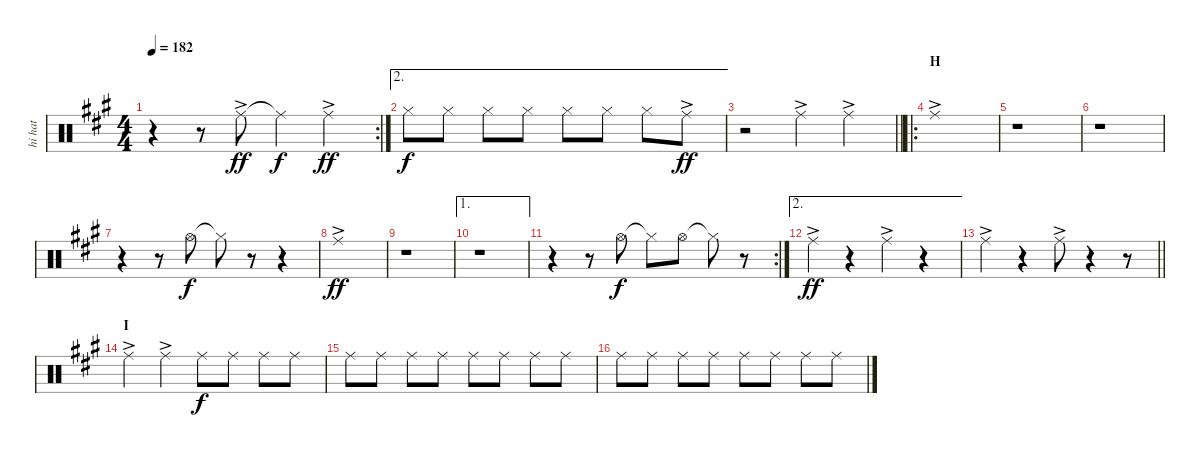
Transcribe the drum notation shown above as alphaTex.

\track ("hi hat" "hi hat") {instrument percussion}
\staff {score}
\articulation defaults
\rc 2
\ts (4 4)
\tempo 182
\clef neutral
\ks f#minor
r.4{dy ff} r.8 "Ride (middle)"{ac}.8 "Ride (middle)"{t}.4{dy f} "Ride (middle)"{ac}.4{dy ff} |
\ae 2 "Hi-Hat (closed)".8{dy f} "Hi-Hat (closed)".8 "Hi-Hat (closed)".8 "Hi-Hat (closed)".8 "Hi-Hat (closed)".8 "Hi-Hat (closed)".8 "Hi-Hat (closed)".8 "Ride (middle)"{ac}.8{dy ff}
|
\barLineRight lightlight
r.2 "Ride (middle)"{ac}.4 "Ride (middle)"{ac}.4 |
\ro
\section ("" "H")
"Ride (middle)"{ac}.1 |
r.1 |
r.1 |
r.4 r.8 "Hi-Hat (open)".8{dy f} "Hi-Hat (closed)"{t}.8 r.8 r.4 |
"Ride (middle)"{ac}.1{dy ff} |
r.1 |
\ae 1
r.1 |
\rc 2
r.4 r.8 "Hi-Hat (open)".8{dy f} "Hi-Hat (closed)"{t}.8 "Hi-Hat (open)".8 "Hi-Hat (closed)"{t}.8 r.8 |
\ae 2 "Ride (middle)"{ac}.4{dy ff}
r.4 "Ride (middle)"{ac}.4 r.4 |
\barLineRight lightlight "Ride (middle)"{ac}.4
r.4 "Ride (middle)"{ac}.8 r.4 r.8 |
\section ("" "I")
"Ride (middle)"{ac}.4 "Ride (middle)"{ac}.4 "Ride (middle)".8{dy f} "Ride (middle)".8 "Ride (middle)".8 "Ride (middle)".8 |
"Ride (middle)".8 "Ride (middle)".8 "Ride (middle)".8 "Ride (middle)".8 "Ride (middle)".8 "Ride (middle)".8 "Ride (middle)".8 "Ride (middle)".8 |
"Ride (middle)".8 "Ride (middle)".8 "Ride (middle)".8 "Ride (middle)".8 "Ride (middle)".8 "Ride (middle)".8 "Ride (middle)".8 "Ride (middle)".8
